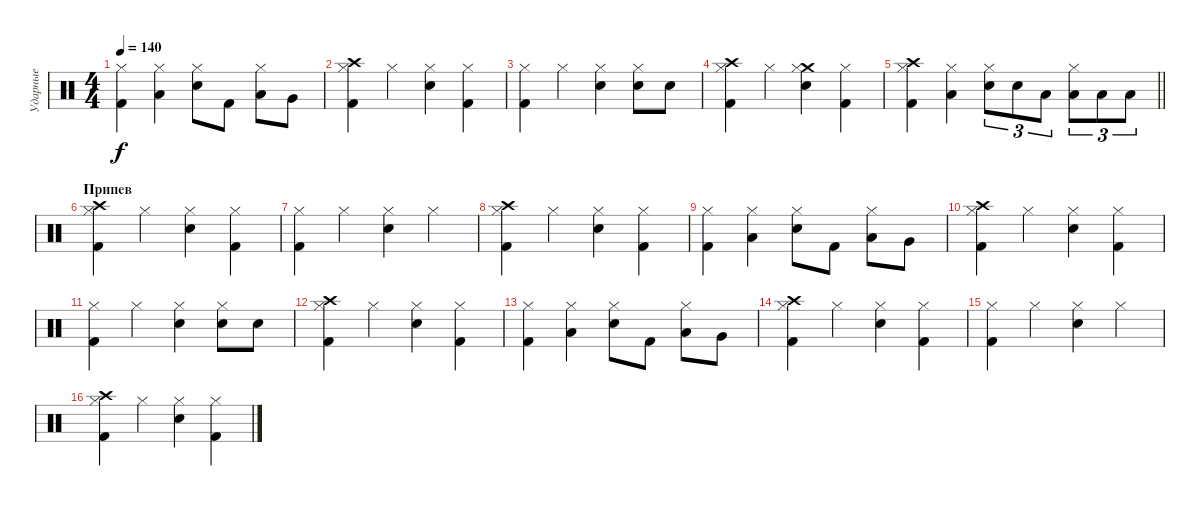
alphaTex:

\track ("Ударные" "Ударные") {instrument percussion}
\staff {score}
\articulation defaults
\ts (4 4)
\tempo 140
\clef neutral
\ks c
("Hi-Hat (closed)" "Kick (hit) 2").4{dy f} ("Low Floor Tom (hit)" "Hi-Hat (closed)").4 ("Snare (hit) 2" "Hi-Hat (closed)").8 "Kick (hit) 2".8 ("Low Tom (hit)" "Hi-Hat (closed)").8 "Very Low Tom (hit)".8 |
("Hi-Hat (closed)" "Crash high (hit)" "Kick (hit) 2").4 "Hi-Hat (closed)".4 ("Hi-Hat (closed)" "Snare (hit) 2").4 ("Hi-Hat (closed)" "Kick (hit) 2").4 |
("Hi-Hat (closed)" "Kick (hit) 2").4 "Hi-Hat (closed)".4 ("Snare (hit) 2" "Hi-Hat (closed)").4 ("Snare (hit) 2" "Hi-Hat (closed)").8 "Snare (hit) 2".8 |
("Hi-Hat (closed)" "Crash high (hit)" "Kick (hit) 2").4 "Hi-Hat (closed)".4 ("Crash medium (hit)" "Hi-Hat (closed)" "Snare (hit) 2").4 ("Hi-Hat (closed)" "Kick (hit) 2").4 |
\barLineRight lightlight
("Crash high (hit)" "Hi-Hat (closed)" "Kick (hit) 2").4 ("Low Floor Tom (hit)" "Hi-Hat (closed)").4 ("Snare (hit) 2" "Hi-Hat (closed)").8{tu (3 2)} "Snare (hit) 2".8{tu (3 2)} "Low Tom (hit)".8{tu (3 2)} ("Low Tom (hit)" "Hi-Hat (closed)").8{tu (3 2)} "Low Floor Tom (hit)".8{tu (3 2)} "Low Floor Tom (hit)".8{tu (3 2)} |
\section ("" "Припев")
("Hi-Hat (closed)" "Crash high (hit)" "Kick (hit) 2").4 "Hi-Hat (closed)".4 ("Hi-Hat (closed)" "Snare (hit) 2").4 ("Hi-Hat (closed)" "Kick (hit) 2").4 |
("Hi-Hat (closed)" "Kick (hit) 2").4 "Hi-Hat (closed)".4 ("Snare (hit) 2" "Hi-Hat (closed)").4 "Hi-Hat (closed)".4 |
("Hi-Hat (closed)" "Crash high (hit)" "Kick (hit) 2").4 "Hi-Hat (closed)".4 ("Hi-Hat (closed)" "Snare (hit) 2").4 ("Hi-Hat (closed)" "Kick (hit) 2").4 |
("Hi-Hat (closed)" "Kick (hit) 2").4 ("Low Floor Tom (hit)" "Hi-Hat (closed)").4 ("Snare (hit) 2" "Hi-Hat (closed)").8 "Kick (hit) 2".8 ("Low Tom (hit)" "Hi-Hat (closed)").8 "Very Low Tom (hit)".8 |
("Hi-Hat (closed)" "Crash high (hit)" "Kick (hit) 2").4 "Hi-Hat (closed)".4 ("Hi-Hat (closed)" "Snare (hit) 2").4 ("Hi-Hat (closed)" "Kick (hit) 2").4 |
("Hi-Hat (closed)" "Kick (hit) 2").4 "Hi-Hat (closed)".4 ("Snare (hit) 2" "Hi-Hat (closed)").4 ("Snare (hit) 2" "Hi-Hat (closed)").8 "Snare (hit) 2".8 |
("Hi-Hat (closed)" "Crash high (hit)" "Kick (hit) 2").4 "Hi-Hat (closed)".4 ("Hi-Hat (closed)" "Snare (hit) 2").4 ("Hi-Hat (closed)" "Kick (hit) 2").4 |
("Hi-Hat (closed)" "Kick (hit) 2").4 ("Low Floor Tom (hit)" "Hi-Hat (closed)").4 ("Snare (hit) 2" "Hi-Hat (closed)").8 "Kick (hit) 2".8 ("Low Tom (hit)" "Hi-Hat (closed)").8 "Very Low Tom (hit)".8 |
("Hi-Hat (closed)" "Crash high (hit)" "Kick (hit) 2").4 "Hi-Hat (closed)".4 ("Hi-Hat (closed)" "Snare (hit) 2").4 ("Hi-Hat (closed)" "Kick (hit) 2").4 |
("Hi-Hat (closed)" "Kick (hit) 2").4 "Hi-Hat (closed)".4 ("Snare (hit) 2" "Hi-Hat (closed)").4 "Hi-Hat (closed)".4 |
("Hi-Hat (closed)" "Crash high (hit)" "Kick (hit) 2").4 "Hi-Hat (closed)".4 ("Hi-Hat (closed)" "Snare (hit) 2").4 ("Hi-Hat (closed)" "Kick (hit) 2").4
